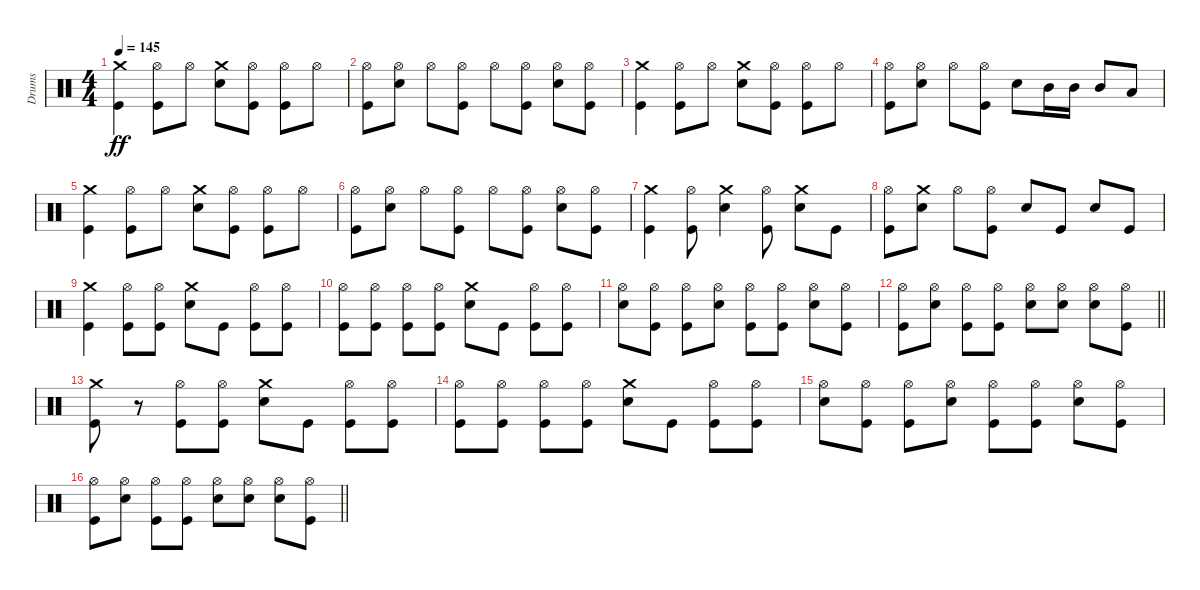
\track ("Drums" "Drums") {instrument percussion}
\staff {score}
\articulation defaults
\ts (4 4)
\tempo 145
\clef neutral
\ks c
("Kick (hit)" "Crash medium (hit)").4{dy ff} ("Hi-Hat (open)" "Kick (hit)").8 "Hi-Hat (open)".8 ("Snare (hit) 2" "Crash medium (hit)").8 ("Kick (hit)" "Hi-Hat (open)").8 ("Hi-Hat (open)" "Kick (hit)").8 "Hi-Hat (open)".8 |
("Kick (hit)" "Hi-Hat (open)").8 ("Hi-Hat (open)" "Snare (hit) 2").8 "Hi-Hat (open)".8 ("Hi-Hat (open)" "Kick (hit)").8 "Hi-Hat (open)".8 ("Kick (hit)" "Hi-Hat (open)").8 ("Snare (hit) 2" "Hi-Hat (open)").8 ("Hi-Hat (open)" "Kick (hit)").8 |
("Crash medium (hit)" "Kick (hit)").4 ("Hi-Hat (open)" "Kick (hit)").8 "Hi-Hat (open)".8 ("Snare (hit) 2" "Crash medium (hit)").8 ("Kick (hit)" "Hi-Hat (open)").8 ("Hi-Hat (open)" "Kick (hit)").8 "Hi-Hat (open)".8 |
("Kick (hit)" "Hi-Hat (open)").8 ("Hi-Hat (open)" "Snare (hit) 2").8 "Hi-Hat (open)".8 ("Hi-Hat (open)" "Kick (hit)").8 "Snare (hit) 2".8 "Mid Tom (hit)".16 "Mid Tom (hit)".16 "Mid Tom (hit)".8 "Low Floor Tom (hit)".8 |
("Crash medium (hit)" "Kick (hit)").4 ("Hi-Hat (open)" "Kick (hit)").8 "Hi-Hat (open)".8 ("Crash medium (hit)" "Snare (hit) 2").8 ("Hi-Hat (open)" "Kick (hit)").8 ("Hi-Hat (open)" "Kick (hit)").8 "Hi-Hat (open)".8 |
("Kick (hit)" "Hi-Hat (open)").8 ("Hi-Hat (open)" "Snare (hit) 2").8 "Hi-Hat (open)".8 ("Hi-Hat (open)" "Kick (hit)").8 "Hi-Hat (open)".8 ("Kick (hit)" "Hi-Hat (open)").8 ("Snare (hit) 2" "Hi-Hat (open)").8 ("Hi-Hat (open)" "Kick (hit)").8 |
("Crash medium (hit)" "Kick (hit)").4 ("Hi-Hat (open)" "Kick (hit)").8 ("Crash medium (hit)" "Snare (hit) 2").4 ("Hi-Hat (open)" "Kick (hit)").8 ("Crash medium (hit)" "Snare (hit) 2").8 "Kick (hit)".8 |
("Kick (hit)" "Hi-Hat (open)").8 ("Crash medium (hit)" "Snare (hit) 2").8 "Hi-Hat (open)".8 ("Hi-Hat (open)" "Kick (hit)").8 "Snare (hit) 2".8 "Kick (hit)".8 "Snare (hit) 2".8 "Kick (hit)".8 |
("Kick (hit)" "Crash medium (hit)").4 ("Hi-Hat (open)" "Kick (hit)").8 ("Hi-Hat (open)" "Kick (hit)").8 ("Snare (hit) 2" "Crash medium (hit)").8 "Kick (hit)".8 ("Hi-Hat (open)" "Kick (hit)").8 ("Hi-Hat (open)" "Kick (hit)").8 |
("Hi-Hat (open)" "Kick (hit)").8 ("Hi-Hat (open)" "Kick (hit)").8 ("Kick (hit)" "Hi-Hat (open)").8 ("Hi-Hat (open)" "Kick (hit)").8 ("Snare (hit) 2" "Crash medium (hit)").8 "Kick (hit)".8 ("Hi-Hat (open)" "Kick (hit)").8 ("Hi-Hat (open)" "Kick (hit)").8 |
("Hi-Hat (open)" "Snare (hit) 2").8 ("Hi-Hat (open)" "Kick (hit)").8 ("Hi-Hat (open)" "Kick (hit)").8 ("Snare (hit) 2" "Hi-Hat (open)").8 ("Hi-Hat (open)" "Kick (hit)").8 ("Hi-Hat (open)" "Kick (hit)").8 ("Snare (hit) 2" "Hi-Hat (open)").8 ("Hi-Hat (open)" "Kick (hit)").8 |
\barLineRight lightlight
("Hi-Hat (open)" "Kick (hit)").8 ("Snare (hit) 2" "Hi-Hat (open)").8 ("Hi-Hat (open)" "Kick (hit)").8 ("Hi-Hat (open)" "Kick (hit)").8 ("Hi-Hat (open)" "Snare (hit) 2").8 ("Hi-Hat (open)" "Snare (hit) 2").8 ("Hi-Hat (open)" "Snare (hit) 2").8 ("Hi-Hat (open)" "Kick (hit)").8 |
("Kick (hit)" "Crash medium (hit)").8 r.8 ("Hi-Hat (open)" "Kick (hit)").8 ("Hi-Hat (open)" "Kick (hit)").8 ("Snare (hit) 2" "Crash medium (hit)").8 "Kick (hit)".8 ("Hi-Hat (open)" "Kick (hit)").8 ("Hi-Hat (open)" "Kick (hit)").8 |
("Hi-Hat (open)" "Kick (hit)").8 ("Hi-Hat (open)" "Kick (hit)").8 ("Kick (hit)" "Hi-Hat (open)").8 ("Hi-Hat (open)" "Kick (hit)").8 ("Snare (hit) 2" "Crash medium (hit)").8 "Kick (hit)".8 ("Hi-Hat (open)" "Kick (hit)").8 ("Hi-Hat (open)" "Kick (hit)").8 |
("Hi-Hat (open)" "Snare (hit) 2").8 ("Hi-Hat (open)" "Kick (hit)").8 ("Hi-Hat (open)" "Kick (hit)").8 ("Snare (hit) 2" "Hi-Hat (open)").8 ("Hi-Hat (open)" "Kick (hit)").8 ("Hi-Hat (open)" "Kick (hit)").8 ("Snare (hit) 2" "Hi-Hat (open)").8 ("Hi-Hat (open)" "Kick (hit)").8 |
\barLineRight lightlight
("Hi-Hat (open)" "Kick (hit)").8 ("Snare (hit) 2" "Hi-Hat (open)").8 ("Hi-Hat (open)" "Kick (hit)").8 ("Hi-Hat (open)" "Kick (hit)").8 ("Hi-Hat (open)" "Snare (hit) 2").8 ("Hi-Hat (open)" "Snare (hit) 2").8 ("Hi-Hat (open)" "Snare (hit) 2").8 ("Hi-Hat (open)" "Kick (hit)").8
